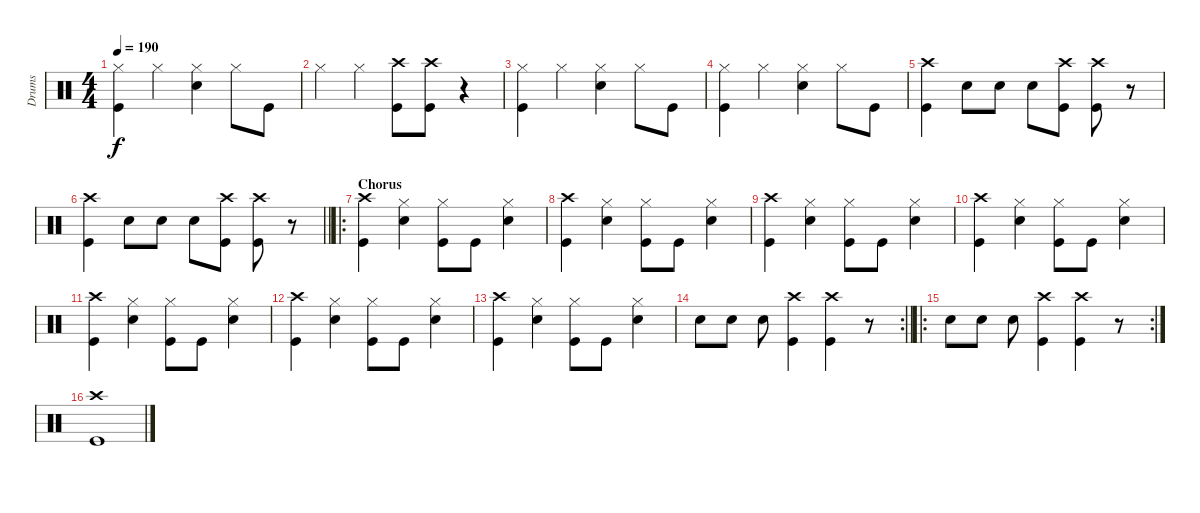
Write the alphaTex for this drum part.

\track ("Drums" "Drums") {instrument percussion}
\staff {score}
\articulation defaults
\ts (4 4)
\tempo 190
\clef neutral
\ks c
("Hi-Hat (closed)" "Kick (hit)").4{dy f} "Hi-Hat (closed)".4 ("Hi-Hat (closed)" "Snare (hit) 2").4 "Hi-Hat (closed)".8 "Kick (hit)".8 |
"Hi-Hat (closed)".4 "Hi-Hat (closed)".4 ("Crash high (hit)" "Kick (hit)").8 ("Crash high (hit)" "Kick (hit)").8 r.4 |
("Hi-Hat (closed)" "Kick (hit)").4 "Hi-Hat (closed)".4 ("Hi-Hat (closed)" "Snare (hit) 2").4 "Hi-Hat (closed)".8 "Kick (hit)".8 |
("Hi-Hat (closed)" "Kick (hit)").4 "Hi-Hat (closed)".4 ("Hi-Hat (closed)" "Snare (hit) 2").4 "Hi-Hat (closed)".8 "Kick (hit)".8 |
("Crash high (hit)" "Kick (hit)").4 "Snare (hit) 2".8 "Snare (hit) 2".8 "Snare (hit) 2".8 ("Crash high (hit)" "Kick (hit)").8 ("Crash high (hit)" "Kick (hit)").8 r.8 |
\barLineRight lightlight
("Crash high (hit)" "Kick (hit)").4 "Snare (hit) 2".8 "Snare (hit) 2".8 "Snare (hit) 2".8 ("Crash high (hit)" "Kick (hit)").8 ("Crash high (hit)" "Kick (hit)").8 r.8 |
\ro
\section ("" "Chorus")
("Crash high (hit)" "Kick (hit)").4 ("Hi-Hat (closed)" "Snare (hit) 2").4 ("Hi-Hat (closed)" "Kick (hit)").8 "Kick (hit)".8 ("Hi-Hat (closed)" "Snare (hit) 2").4 |
("Crash high (hit)" "Kick (hit)").4 ("Hi-Hat (closed)" "Snare (hit) 2").4 ("Hi-Hat (closed)" "Kick (hit)").8 "Kick (hit)".8 ("Hi-Hat (closed)" "Snare (hit) 2").4 |
("Crash high (hit)" "Kick (hit)").4 ("Hi-Hat (closed)" "Snare (hit) 2").4 ("Hi-Hat (closed)" "Kick (hit)").8 "Kick (hit)".8 ("Hi-Hat (closed)" "Snare (hit) 2").4 |
("Crash high (hit)" "Kick (hit)").4 ("Hi-Hat (closed)" "Snare (hit) 2").4 ("Hi-Hat (closed)" "Kick (hit)").8 "Kick (hit)".8 ("Hi-Hat (closed)" "Snare (hit) 2").4 |
("Crash high (hit)" "Kick (hit)").4 ("Hi-Hat (closed)" "Snare (hit) 2").4 ("Hi-Hat (closed)" "Kick (hit)").8 "Kick (hit)".8 ("Hi-Hat (closed)" "Snare (hit) 2").4 |
("Crash high (hit)" "Kick (hit)").4 ("Hi-Hat (closed)" "Snare (hit) 2").4 ("Hi-Hat (closed)" "Kick (hit)").8 "Kick (hit)".8 ("Hi-Hat (closed)" "Snare (hit) 2").4 |
("Crash high (hit)" "Kick (hit)").4 ("Hi-Hat (closed)" "Snare (hit) 2").4 ("Hi-Hat (closed)" "Kick (hit)").8 "Kick (hit)".8 ("Hi-Hat (closed)" "Snare (hit) 2").4 |
\rc 2
\barLineRight lightlight "Snare (hit) 2".8 "Snare (hit) 2".8 "Snare (hit) 2".8
("Crash high (hit)" "Kick (hit)").4 ("Crash high (hit)" "Kick (hit)").4 r.8 |
\ro
\rc 2 "Snare (hit) 2".8 "Snare (hit) 2".8 "Snare (hit) 2".8
("Crash high (hit)" "Kick (hit)").4 ("Crash high (hit)" "Kick (hit)").4 r.8 |
("Crash high (hit)" "Kick (hit)").1
